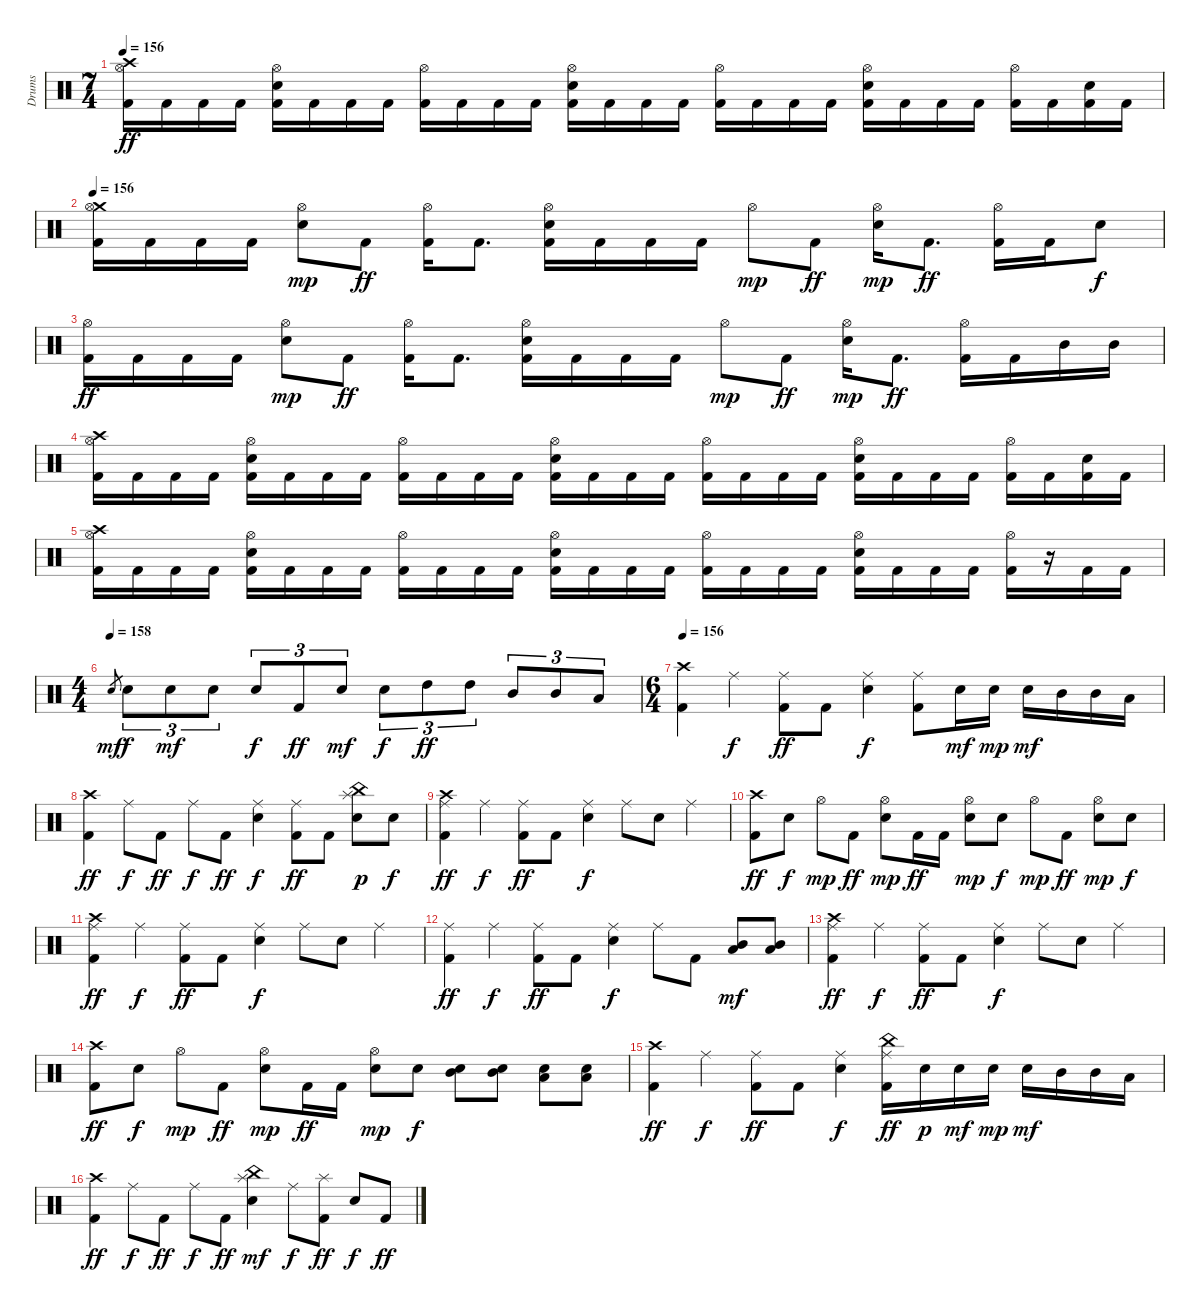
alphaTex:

\track ("Drums" "Drums") {instrument percussion}
\staff {score}
\articulation defaults
\ts (7 4)
\tempo 156
\clef neutral
\ks c
("Crash high (hit)" "Hi-Hat (open)" "Kick (hit) 2").16{dy ff} "Kick (hit) 2".16 "Kick (hit) 2".16 "Kick (hit) 2".16 ("Hi-Hat (open)" "Electric Snare (hit)" "Kick (hit) 2").16 "Kick (hit) 2".16 "Kick (hit) 2".16 "Kick (hit) 2".16 ("Hi-Hat (open)" "Kick (hit) 2").16 "Kick (hit) 2".16 "Kick (hit) 2".16 "Kick (hit) 2".16 ("Hi-Hat (open)" "Electric Snare (hit)" "Kick (hit) 2").16 "Kick (hit) 2".16 "Kick (hit) 2".16 "Kick (hit) 2".16 ("Hi-Hat (open)" "Kick (hit) 2").16 "Kick (hit) 2".16 "Kick (hit) 2".16 "Kick (hit) 2".16 ("Hi-Hat (open)" "Electric Snare (hit)" "Kick (hit) 2").16 "Kick (hit) 2".16 "Kick (hit) 2".16 "Kick (hit) 2".16 ("Hi-Hat (open)" "Kick (hit) 2").16 "Kick (hit) 2".16 ("Electric Snare (hit)" "Kick (hit) 2").16 "Kick (hit) 2".16 |
\tempo 156
("Crash medium (hit)" "Hi-Hat (open)" "Kick (hit) 2").16 "Kick (hit) 2".16 "Kick (hit) 2".16 "Kick (hit) 2".16 ("Hi-Hat (open)" "Electric Snare (hit)").8{dy mp} "Kick (hit) 2".8{dy ff} ("Hi-Hat (open)" "Kick (hit) 2").16 "Kick (hit) 2".8{d} ("Hi-Hat (open)" "Electric Snare (hit)" "Kick (hit) 2").16 "Kick (hit) 2".16 "Kick (hit) 2".16 "Kick (hit) 2".16 "Hi-Hat (open)".8{dy mp} "Kick (hit) 2".8{dy ff} ("Hi-Hat (open)" "Electric Snare (hit)").16{dy mp} "Kick (hit) 2".8{d dy ff} ("Hi-Hat (open)" "Kick (hit) 2").16 "Kick (hit) 2".16 "Electric Snare (hit)".8{dy f} |
("Hi-Hat (open)" "Kick (hit) 2").16{dy ff} "Kick (hit) 2".16 "Kick (hit) 2".16 "Kick (hit) 2".16 ("Hi-Hat (open)" "Electric Snare (hit)").8{dy mp} "Kick (hit) 2".8{dy ff} ("Hi-Hat (open)" "Kick (hit) 2").16 "Kick (hit) 2".8{d} ("Hi-Hat (open)" "Electric Snare (hit)" "Kick (hit) 2").16 "Kick (hit) 2".16 "Kick (hit) 2".16 "Kick (hit) 2".16 "Hi-Hat (open)".8{dy mp} "Kick (hit) 2".8{dy ff} ("Hi-Hat (open)" "Electric Snare (hit)").16{dy mp} "Kick (hit) 2".8{d dy ff} ("Hi-Hat (open)" "Kick (hit) 2").16 "Kick (hit) 2".16 "Mid Tom (hit)".16 "Mid Tom (hit)".16 |
("Crash high (hit)" "Hi-Hat (open)" "Kick (hit) 2").16 "Kick (hit) 2".16 "Kick (hit) 2".16 "Kick (hit) 2".16 ("Hi-Hat (open)" "Electric Snare (hit)" "Kick (hit) 2").16 "Kick (hit) 2".16 "Kick (hit) 2".16 "Kick (hit) 2".16 ("Hi-Hat (open)" "Kick (hit) 2").16 "Kick (hit) 2".16 "Kick (hit) 2".16 "Kick (hit) 2".16 ("Hi-Hat (open)" "Electric Snare (hit)" "Kick (hit) 2").16 "Kick (hit) 2".16 "Kick (hit) 2".16 "Kick (hit) 2".16 ("Hi-Hat (open)" "Kick (hit) 2").16 "Kick (hit) 2".16 "Kick (hit) 2".16 "Kick (hit) 2".16 ("Hi-Hat (open)" "Electric Snare (hit)" "Kick (hit) 2").16 "Kick (hit) 2".16 "Kick (hit) 2".16 "Kick (hit) 2".16 ("Hi-Hat (open)" "Kick (hit) 2").16 "Kick (hit) 2".16 ("Electric Snare (hit)" "Kick (hit) 2").16 "Kick (hit) 2".16 |
("Crash high (hit)" "Hi-Hat (open)" "Kick (hit) 2").16 "Kick (hit) 2".16 "Kick (hit) 2".16 "Kick (hit) 2".16 ("Hi-Hat (open)" "Electric Snare (hit)" "Kick (hit) 2").16 "Kick (hit) 2".16 "Kick (hit) 2".16 "Kick (hit) 2".16 ("Hi-Hat (open)" "Kick (hit) 2").16 "Kick (hit) 2".16 "Kick (hit) 2".16 "Kick (hit) 2".16 ("Hi-Hat (open)" "Electric Snare (hit)" "Kick (hit) 2").16 "Kick (hit) 2".16 "Kick (hit) 2".16 "Kick (hit) 2".16 ("Hi-Hat (open)" "Kick (hit) 2").16 "Kick (hit) 2".16 "Kick (hit) 2".16 "Kick (hit) 2".16 ("Hi-Hat (open)" "Electric Snare (hit)" "Kick (hit) 2").16 "Kick (hit) 2".16 "Kick (hit) 2".16 "Kick (hit) 2".16 ("Hi-Hat (open)" "Kick (hit) 2").16 r.16 "Kick (hit) 2".16 "Kick (hit) 2".16 |
\ts (4 4)
\tempo (158)
"Electric Snare (hit)".8{gr dy mf} "Electric Snare (hit)".8{tu (3 2) dy f} "Electric Snare (hit)".8{tu (3 2) dy mf} "Electric Snare (hit)".8{tu (3 2)} "Electric Snare (hit)".8{tu (3 2) dy f} "Kick (hit) 2".8{tu (3 2) dy ff} "Electric Snare (hit)".8{tu (3 2) dy mf} "Electric Snare (hit)".8{tu (3 2) dy f} "High Tom (hit)".8{tu (3 2) dy ff} "High Tom (hit)".8{tu (3 2)} "Mid Tom (hit)".8{tu (3 2)} "Mid Tom (hit)".8{tu (3 2)} "Low Tom (hit)".8{tu (3 2)} |
\ts (6 4)
\tempo 156
("Crash high (hit)" "Kick (hit) 2").4 "Ride (middle)".4{dy f} ("Ride (middle)" "Kick (hit) 2").8{dy ff} "Kick (hit) 2".8 ("Ride (middle)" "Electric Snare (hit)").4{dy f} ("Ride (middle)" "Kick (hit) 2").8 "Electric Snare (hit)".16{dy mf} "Electric Snare (hit)".16{dy mp} "Electric Snare (hit)".16{dy mf} "Mid Tom (hit)".16 "Mid Tom (hit)".16 "Low Tom (hit)".16 |
("Crash high (hit)" "Kick (hit) 2").4{dy ff} "Ride (middle)".8{dy f} "Kick (hit) 2".8{dy ff} "Ride (middle)".8{dy f} "Kick (hit) 2".8{dy ff} ("Ride (middle)" "Electric Snare (hit)").4{dy f} ("Ride (middle)" "Kick (hit) 2").8{dy ff} "Kick (hit) 2".8 ("Splash (hit)" "China (hit)" "Electric Snare (hit)").8{dy p} "Electric Snare (hit)".8{dy f} |
("Crash high (hit)" "Ride (middle)" "Kick (hit) 2").4{dy ff} "Ride (middle)".4{dy f} ("Ride (middle)" "Kick (hit) 2").8{dy ff} "Kick (hit) 2".8 ("Ride (middle)" "Electric Snare (hit)").4{dy f} "Ride (middle)".8 "Electric Snare (hit)".8 "Ride (middle)".4 |
("Crash high (hit)" "Kick (hit) 2").8{dy ff} "Electric Snare (hit)".8{dy f} "Hi-Hat (open)".8{dy mp} "Kick (hit) 2".8{dy ff} ("Hi-Hat (open)" "Electric Snare (hit)").8{dy mp} "Kick (hit) 2".16{dy ff} "Kick (hit) 2".16 ("Hi-Hat (open)" "Electric Snare (hit)").8{dy mp} "Electric Snare (hit)".8{dy f} "Hi-Hat (open)".8{dy mp} "Kick (hit) 2".8{dy ff} ("Hi-Hat (open)" "Electric Snare (hit)").8{dy mp} "Electric Snare (hit)".8{dy f} |
("Crash high (hit)" "Ride (middle)" "Kick (hit) 2").4{dy ff} "Ride (middle)".4{dy f} ("Ride (middle)" "Kick (hit) 2").8{dy ff} "Kick (hit) 2".8 ("Ride (middle)" "Electric Snare (hit)").4{dy f} "Ride (middle)".8 "Electric Snare (hit)".8 "Ride (middle)".4 |
("Ride (middle)" "Kick (hit) 2").4{dy ff} "Ride (middle)".4{dy f} ("Ride (middle)" "Kick (hit) 2").8{dy ff} "Kick (hit) 2".8 ("Ride (middle)" "Electric Snare (hit)").4{dy f} "Ride (middle)".8 "Kick (hit) 2".8 ("Mid Tom (hit)" "Low Tom (hit)").8{dy mf} ("Mid Tom (hit)" "Low Tom (hit)").8 |
("Crash high (hit)" "Ride (middle)" "Kick (hit) 2").4{dy ff} "Ride (middle)".4{dy f} ("Ride (middle)" "Kick (hit) 2").8{dy ff} "Kick (hit) 2".8 ("Ride (middle)" "Electric Snare (hit)").4{dy f} "Ride (middle)".8 "Electric Snare (hit)".8 "Ride (middle)".4 |
("Crash high (hit)" "Kick (hit) 2").8{dy ff} "Electric Snare (hit)".8{dy f} "Hi-Hat (open)".8{dy mp} "Kick (hit) 2".8{dy ff} ("Hi-Hat (open)" "Electric Snare (hit)").8{dy mp} "Kick (hit) 2".16{dy ff} "Kick (hit) 2".16 ("Hi-Hat (open)" "Electric Snare (hit)").8{dy mp} "Electric Snare (hit)".8{dy f} ("Electric Snare (hit)" "Mid Tom (hit)").8 ("Electric Snare (hit)" "Mid Tom (hit)").8 ("Electric Snare (hit)" "Low Tom (hit)").8 ("Electric Snare (hit)" "Low Tom (hit)").8 |
("Crash high (hit)" "Kick (hit) 2").4{dy ff} "Ride (middle)".4{dy f} ("Ride (middle)" "Kick (hit) 2").8{dy ff} "Kick (hit) 2".8 ("Ride (middle)" "Electric Snare (hit)").4{dy f} ("China (hit)" "Ride (middle)" "Kick (hit) 2").16{dy ff} "Electric Snare (hit)".16{dy p} "Electric Snare (hit)".16{dy mf} "Electric Snare (hit)".16{dy mp} "Electric Snare (hit)".16{dy mf} "Mid Tom (hit)".16 "Mid Tom (hit)".16 "Low Tom (hit)".16 |
("Crash high (hit)" "Kick (hit) 2").4{dy ff} "Ride (middle)".8{dy f} "Kick (hit) 2".8{dy ff} "Ride (middle)".8{dy f} "Kick (hit) 2".8{dy ff} ("Splash (hit)" "China (hit)" "Electric Snare (hit)").4{dy mf} "Ride (middle)".8{dy f} ("Splash (hit)" "Kick (hit) 2").8{dy ff} "Electric Snare (hit)".8{dy f} "Kick (hit) 2".8{dy ff}
